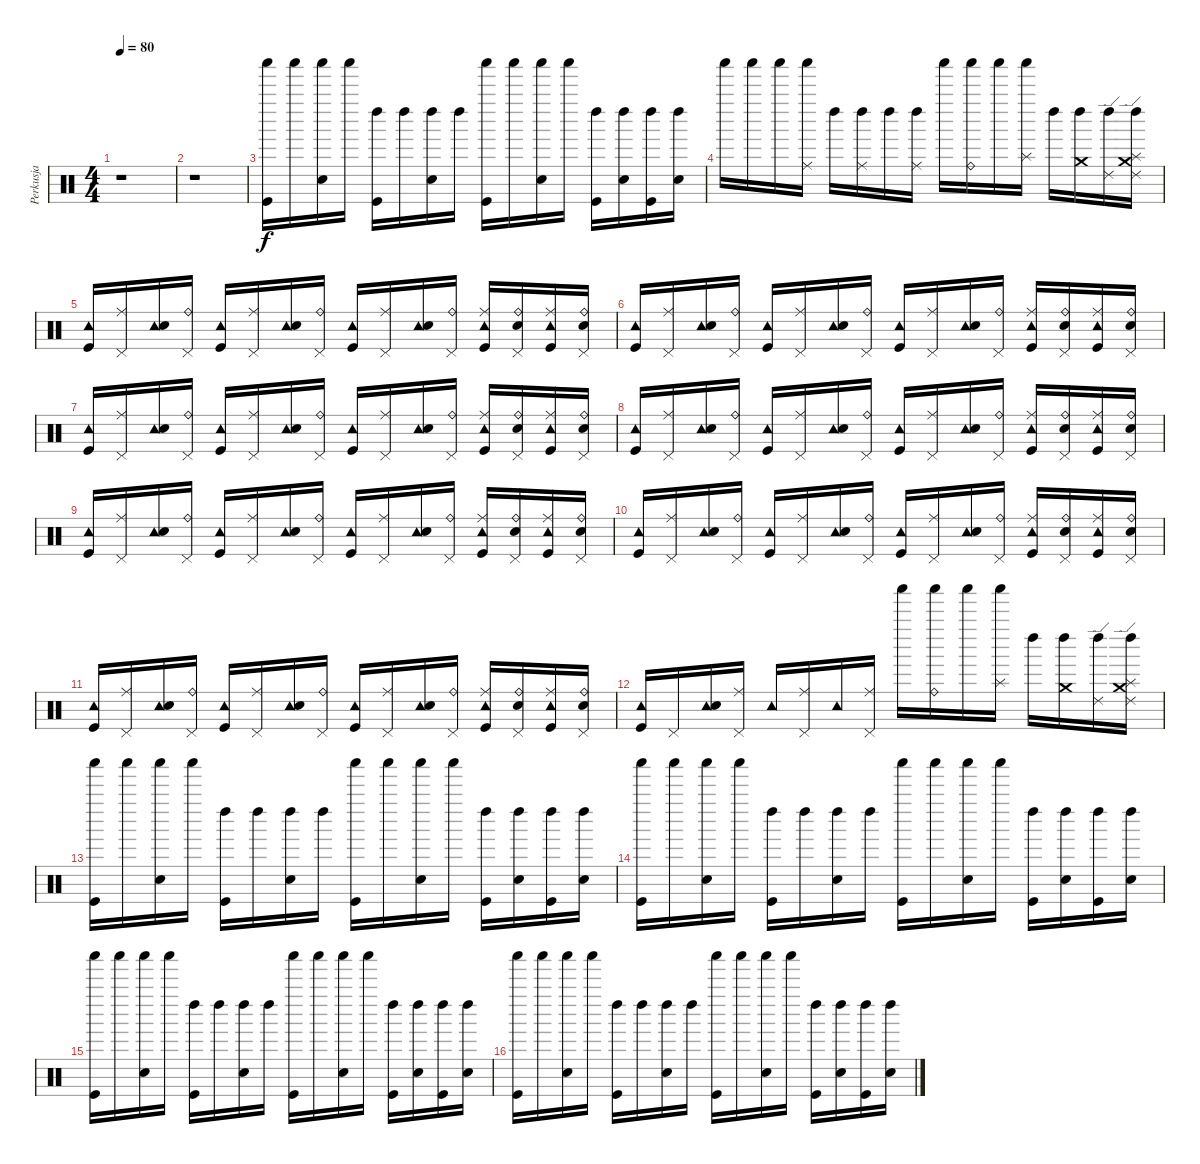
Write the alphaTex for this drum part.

\track ("Perkusja" "Perkusja") {instrument percussion}
\staff {score}
\articulation defaults
\ts (4 4)
\tempo 80
\clef neutral
\ks c
r.1{dy f} |
r.1 |
("Shaker (hit)" "Kick (hit)").16 "Shaker (hit)".16 ("Shaker (hit)" "Snare (hit) 2").16 "Shaker (hit)".16 ("Left Maraca (hit)" "Kick (hit)").16 "Left Maraca (hit)".16 ("Left Maraca (hit)" "Snare (hit) 2").16 "Left Maraca (hit)".16 ("Shaker (hit)" "Kick (hit)").16 "Shaker (hit)".16 ("Shaker (hit)" "Snare (hit) 2").16 "Shaker (hit)".16 ("Left Maraca (hit)" "Kick (hit)").16 ("Left Maraca (hit)" "Snare (hit) 2").16 ("Left Maraca (hit)" "Kick (hit)").16 ("Left Maraca (hit)" "Snare (hit) 2").16 |
"Shaker (hit)".16 "Shaker (hit)".16 "Shaker (hit)".16 ("Shaker (hit)" "Ride (middle)").16 "Left Maraca (hit)".16 ("Left Maraca (hit)" "Ride (middle)").16 "Left Maraca (hit)".16 ("Left Maraca (hit)" "Ride (middle)").16 "Shaker (hit)".16 ("Shaker (hit)" "Ride (bell)").16 "Shaker (hit)".16 ("Shaker (hit)" "Splash (hit)").16 "Left Maraca (hit)".16 ("Left Maraca (hit)" "Crash medium (hit)").16 ("Left Maraca (hit)" "Ride (edge) 2").16 ("Left Maraca (hit)" "Ride (edge) 2" "Crash medium (hit)" "Splash (hit)").16 |
("Tambourine (hit)" "Kick (hit)").16 ("Pedal Hi-Hat (hit)" "Ride (middle)").16 ("Tambourine (hit)" "Snare (hit) 2").16 ("Pedal Hi-Hat (hit)" "Ride (bell)").16 ("Tambourine (hit)" "Kick (hit)").16 ("Pedal Hi-Hat (hit)" "Ride (middle)").16 ("Tambourine (hit)" "Snare (hit) 2").16 ("Pedal Hi-Hat (hit)" "Ride (bell)").16 ("Tambourine (hit)" "Kick (hit)").16 ("Pedal Hi-Hat (hit)" "Ride (middle)").16 ("Tambourine (hit)" "Snare (hit) 2").16 ("Pedal Hi-Hat (hit)" "Ride (bell)").16 ("Tambourine (hit)" "Kick (hit)" "Ride (middle)").16 ("Pedal Hi-Hat (hit)" "Snare (hit) 2" "Ride (bell)").16 ("Tambourine (hit)" "Kick (hit)" "Ride (middle)").16 ("Pedal Hi-Hat (hit)" "Snare (hit) 2" "Ride (bell)").16 |
("Tambourine (hit)" "Kick (hit)").16 ("Pedal Hi-Hat (hit)" "Ride (middle)").16 ("Tambourine (hit)" "Snare (hit) 2").16 ("Pedal Hi-Hat (hit)" "Ride (bell)").16 ("Tambourine (hit)" "Kick (hit)").16 ("Pedal Hi-Hat (hit)" "Ride (middle)").16 ("Tambourine (hit)" "Snare (hit) 2").16 ("Pedal Hi-Hat (hit)" "Ride (bell)").16 ("Tambourine (hit)" "Kick (hit)").16 ("Pedal Hi-Hat (hit)" "Ride (middle)").16 ("Tambourine (hit)" "Snare (hit) 2").16 ("Pedal Hi-Hat (hit)" "Ride (bell)").16 ("Tambourine (hit)" "Kick (hit)" "Ride (middle)").16 ("Pedal Hi-Hat (hit)" "Snare (hit) 2" "Ride (bell)").16 ("Tambourine (hit)" "Kick (hit)" "Ride (middle)").16 ("Pedal Hi-Hat (hit)" "Snare (hit) 2" "Ride (bell)").16 |
("Tambourine (hit)" "Kick (hit)").16 ("Pedal Hi-Hat (hit)" "Ride (middle)").16 ("Tambourine (hit)" "Snare (hit) 2").16 ("Pedal Hi-Hat (hit)" "Ride (bell)").16 ("Tambourine (hit)" "Kick (hit)").16 ("Pedal Hi-Hat (hit)" "Ride (middle)").16 ("Tambourine (hit)" "Snare (hit) 2").16 ("Pedal Hi-Hat (hit)" "Ride (bell)").16 ("Tambourine (hit)" "Kick (hit)").16 ("Pedal Hi-Hat (hit)" "Ride (middle)").16 ("Tambourine (hit)" "Snare (hit) 2").16 ("Pedal Hi-Hat (hit)" "Ride (bell)").16 ("Tambourine (hit)" "Kick (hit)" "Ride (middle)").16 ("Pedal Hi-Hat (hit)" "Snare (hit) 2" "Ride (bell)").16 ("Tambourine (hit)" "Kick (hit)" "Ride (middle)").16 ("Pedal Hi-Hat (hit)" "Snare (hit) 2" "Ride (bell)").16 |
("Tambourine (hit)" "Kick (hit)").16 ("Pedal Hi-Hat (hit)" "Ride (middle)").16 ("Tambourine (hit)" "Snare (hit) 2").16 ("Pedal Hi-Hat (hit)" "Ride (bell)").16 ("Tambourine (hit)" "Kick (hit)").16 ("Pedal Hi-Hat (hit)" "Ride (middle)").16 ("Tambourine (hit)" "Snare (hit) 2").16 ("Pedal Hi-Hat (hit)" "Ride (bell)").16 ("Tambourine (hit)" "Kick (hit)").16 ("Pedal Hi-Hat (hit)" "Ride (middle)").16 ("Tambourine (hit)" "Snare (hit) 2").16 ("Pedal Hi-Hat (hit)" "Ride (bell)").16 ("Tambourine (hit)" "Kick (hit)" "Ride (middle)").16 ("Pedal Hi-Hat (hit)" "Snare (hit) 2" "Ride (bell)").16 ("Tambourine (hit)" "Kick (hit)" "Ride (middle)").16 ("Pedal Hi-Hat (hit)" "Snare (hit) 2" "Ride (bell)").16 |
("Tambourine (hit)" "Kick (hit)").16 ("Pedal Hi-Hat (hit)" "Ride (middle)").16 ("Tambourine (hit)" "Snare (hit) 2").16 ("Pedal Hi-Hat (hit)" "Ride (bell)").16 ("Tambourine (hit)" "Kick (hit)").16 ("Pedal Hi-Hat (hit)" "Ride (middle)").16 ("Tambourine (hit)" "Snare (hit) 2").16 ("Pedal Hi-Hat (hit)" "Ride (bell)").16 ("Tambourine (hit)" "Kick (hit)").16 ("Pedal Hi-Hat (hit)" "Ride (middle)").16 ("Tambourine (hit)" "Snare (hit) 2").16 ("Pedal Hi-Hat (hit)" "Ride (bell)").16 ("Tambourine (hit)" "Kick (hit)" "Ride (middle)").16 ("Pedal Hi-Hat (hit)" "Snare (hit) 2" "Ride (bell)").16 ("Tambourine (hit)" "Kick (hit)" "Ride (middle)").16 ("Pedal Hi-Hat (hit)" "Snare (hit) 2" "Ride (bell)").16 |
("Tambourine (hit)" "Kick (hit)").16 ("Pedal Hi-Hat (hit)" "Ride (middle)").16 ("Tambourine (hit)" "Snare (hit) 2").16 ("Pedal Hi-Hat (hit)" "Ride (bell)").16 ("Tambourine (hit)" "Kick (hit)").16 ("Pedal Hi-Hat (hit)" "Ride (middle)").16 ("Tambourine (hit)" "Snare (hit) 2").16 ("Pedal Hi-Hat (hit)" "Ride (bell)").16 ("Tambourine (hit)" "Kick (hit)").16 ("Pedal Hi-Hat (hit)" "Ride (middle)").16 ("Tambourine (hit)" "Snare (hit) 2").16 ("Pedal Hi-Hat (hit)" "Ride (bell)").16 ("Tambourine (hit)" "Kick (hit)" "Ride (middle)").16 ("Pedal Hi-Hat (hit)" "Snare (hit) 2" "Ride (bell)").16 ("Tambourine (hit)" "Kick (hit)" "Ride (middle)").16 ("Pedal Hi-Hat (hit)" "Snare (hit) 2" "Ride (bell)").16 |
("Tambourine (hit)" "Kick (hit)").16 ("Pedal Hi-Hat (hit)" "Ride (middle)").16 ("Tambourine (hit)" "Snare (hit) 2").16 ("Pedal Hi-Hat (hit)" "Ride (bell)").16 ("Tambourine (hit)" "Kick (hit)").16 ("Pedal Hi-Hat (hit)" "Ride (middle)").16 ("Tambourine (hit)" "Snare (hit) 2").16 ("Pedal Hi-Hat (hit)" "Ride (bell)").16 ("Tambourine (hit)" "Kick (hit)").16 ("Pedal Hi-Hat (hit)" "Ride (middle)").16 ("Tambourine (hit)" "Snare (hit) 2").16 ("Pedal Hi-Hat (hit)" "Ride (bell)").16 ("Tambourine (hit)" "Kick (hit)" "Ride (middle)").16 ("Pedal Hi-Hat (hit)" "Snare (hit) 2" "Ride (bell)").16 ("Tambourine (hit)" "Kick (hit)" "Ride (middle)").16 ("Pedal Hi-Hat (hit)" "Snare (hit) 2" "Ride (bell)").16 |
("Tambourine (hit)" "Kick (hit)").16 "Pedal Hi-Hat (hit)".16 ("Tambourine (hit)" "Snare (hit) 2").16 ("Pedal Hi-Hat (hit)" "Ride (middle)").16 "Tambourine (hit)".16 ("Pedal Hi-Hat (hit)" "Ride (middle)").16 "Tambourine (hit)".16 ("Pedal Hi-Hat (hit)" "Ride (middle)").16 "Shaker (hit)".16 ("Shaker (hit)" "Ride (bell)").16 "Shaker (hit)".16 ("Shaker (hit)" "Splash (hit)").16 "Left Maraca (hit)".16 ("Left Maraca (hit)" "Crash medium (hit)").16 ("Left Maraca (hit)" "Ride (edge) 2").16 ("Left Maraca (hit)" "Ride (edge) 2" "Crash medium (hit)" "Splash (hit)").16 |
("Shaker (hit)" "Kick (hit)").16 "Shaker (hit)".16 ("Shaker (hit)" "Snare (hit) 2").16 "Shaker (hit)".16 ("Left Maraca (hit)" "Kick (hit)").16 "Left Maraca (hit)".16 ("Left Maraca (hit)" "Snare (hit) 2").16 "Left Maraca (hit)".16 ("Shaker (hit)" "Kick (hit)").16 "Shaker (hit)".16 ("Shaker (hit)" "Snare (hit) 2").16 "Shaker (hit)".16 ("Left Maraca (hit)" "Kick (hit)").16 ("Left Maraca (hit)" "Snare (hit) 2").16 ("Left Maraca (hit)" "Kick (hit)").16 ("Left Maraca (hit)" "Snare (hit) 2").16 |
("Shaker (hit)" "Kick (hit)").16 "Shaker (hit)".16 ("Shaker (hit)" "Snare (hit) 2").16 "Shaker (hit)".16 ("Left Maraca (hit)" "Kick (hit)").16 "Left Maraca (hit)".16 ("Left Maraca (hit)" "Snare (hit) 2").16 "Left Maraca (hit)".16 ("Shaker (hit)" "Kick (hit)").16 "Shaker (hit)".16 ("Shaker (hit)" "Snare (hit) 2").16 "Shaker (hit)".16 ("Left Maraca (hit)" "Kick (hit)").16 ("Left Maraca (hit)" "Snare (hit) 2").16 ("Left Maraca (hit)" "Kick (hit)").16 ("Left Maraca (hit)" "Snare (hit) 2").16 |
("Shaker (hit)" "Kick (hit)").16 "Shaker (hit)".16 ("Shaker (hit)" "Snare (hit) 2").16 "Shaker (hit)".16 ("Left Maraca (hit)" "Kick (hit)").16 "Left Maraca (hit)".16 ("Left Maraca (hit)" "Snare (hit) 2").16 "Left Maraca (hit)".16 ("Shaker (hit)" "Kick (hit)").16 "Shaker (hit)".16 ("Shaker (hit)" "Snare (hit) 2").16 "Shaker (hit)".16 ("Left Maraca (hit)" "Kick (hit)").16 ("Left Maraca (hit)" "Snare (hit) 2").16 ("Left Maraca (hit)" "Kick (hit)").16 ("Left Maraca (hit)" "Snare (hit) 2").16 |
("Shaker (hit)" "Kick (hit)").16 "Shaker (hit)".16 ("Shaker (hit)" "Snare (hit) 2").16 "Shaker (hit)".16 ("Left Maraca (hit)" "Kick (hit)").16 "Left Maraca (hit)".16 ("Left Maraca (hit)" "Snare (hit) 2").16 "Left Maraca (hit)".16 ("Shaker (hit)" "Kick (hit)").16 "Shaker (hit)".16 ("Shaker (hit)" "Snare (hit) 2").16 "Shaker (hit)".16 ("Left Maraca (hit)" "Kick (hit)").16 ("Left Maraca (hit)" "Snare (hit) 2").16 ("Left Maraca (hit)" "Kick (hit)").16 ("Left Maraca (hit)" "Snare (hit) 2").16
